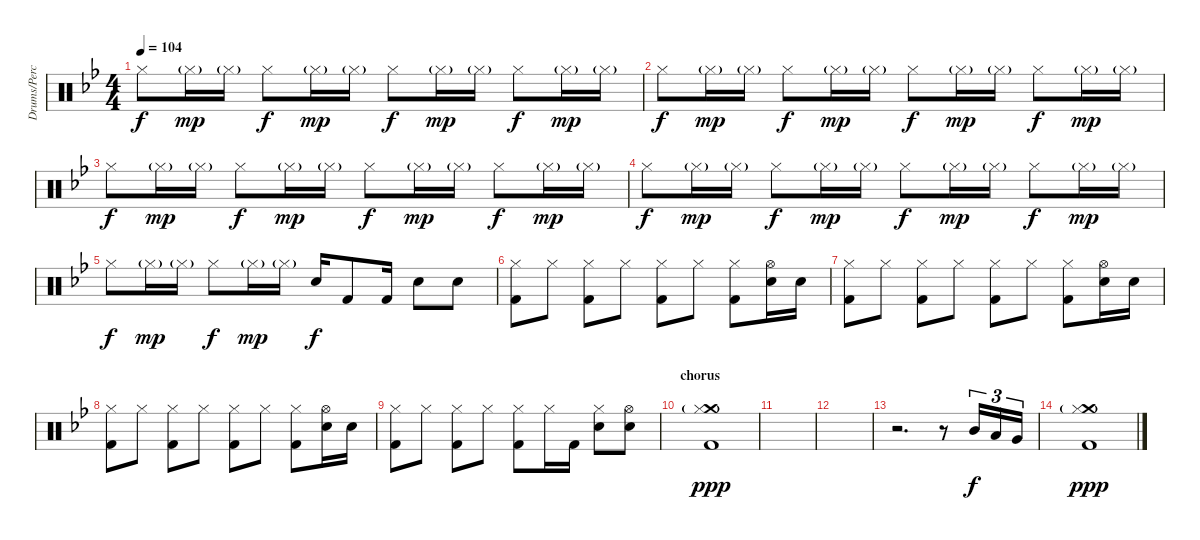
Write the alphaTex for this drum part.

\track ("Drums/Percussion (Bengerg)" "Drums/Perc") {instrument percussion}
\staff {score}
\articulation defaults
\ts (4 4)
\tempo 104
\clef neutral
\ks bb "Hi-Hat (closed)".8{dy f} "Hi-Hat (closed)"{g}.16{dy mp} "Hi-Hat (closed)"{g}.16 "Hi-Hat (closed)".8{dy f} "Hi-Hat (closed)"{g}.16{dy mp} "Hi-Hat (closed)"{g}.16 "Hi-Hat (closed)".8{dy f} "Hi-Hat (closed)"{g}.16{dy mp} "Hi-Hat (closed)"{g}.16 "Hi-Hat (closed)".8{dy f} "Hi-Hat (closed)"{g}.16{dy mp} "Hi-Hat (closed)"{g}.16
|
"Hi-Hat (closed)".8{dy f} "Hi-Hat (closed)"{g}.16{dy mp} "Hi-Hat (closed)"{g}.16 "Hi-Hat (closed)".8{dy f} "Hi-Hat (closed)"{g}.16{dy mp} "Hi-Hat (closed)"{g}.16 "Hi-Hat (closed)".8{dy f} "Hi-Hat (closed)"{g}.16{dy mp} "Hi-Hat (closed)"{g}.16 "Hi-Hat (closed)".8{dy f} "Hi-Hat (closed)"{g}.16{dy mp} "Hi-Hat (closed)"{g}.16 |
"Hi-Hat (closed)".8{dy f} "Hi-Hat (closed)"{g}.16{dy mp} "Hi-Hat (closed)"{g}.16 "Hi-Hat (closed)".8{dy f} "Hi-Hat (closed)"{g}.16{dy mp} "Hi-Hat (closed)"{g}.16 "Hi-Hat (closed)".8{dy f} "Hi-Hat (closed)"{g}.16{dy mp} "Hi-Hat (closed)"{g}.16 "Hi-Hat (closed)".8{dy f} "Hi-Hat (closed)"{g}.16{dy mp} "Hi-Hat (closed)"{g}.16 |
"Hi-Hat (closed)".8{dy f} "Hi-Hat (closed)"{g}.16{dy mp} "Hi-Hat (closed)"{g}.16 "Hi-Hat (closed)".8{dy f} "Hi-Hat (closed)"{g}.16{dy mp} "Hi-Hat (closed)"{g}.16 "Hi-Hat (closed)".8{dy f} "Hi-Hat (closed)"{g}.16{dy mp} "Hi-Hat (closed)"{g}.16 "Hi-Hat (closed)".8{dy f} "Hi-Hat (closed)"{g}.16{dy mp} "Hi-Hat (closed)"{g}.16 |
"Hi-Hat (closed)".8{dy f} "Hi-Hat (closed)"{g}.16{dy mp} "Hi-Hat (closed)"{g}.16 "Hi-Hat (closed)".8{dy f} "Hi-Hat (closed)"{g}.16{dy mp} "Hi-Hat (closed)"{g}.16 "Electric Snare (hit)".16{dy f} "Kick (hit) 2".8 "Kick (hit) 2".16 "Electric Snare (hit)".8 "Electric Snare (hit)".8 |
("Hi-Hat (closed)" "Kick (hit) 2").8 "Hi-Hat (closed)".8 ("Hi-Hat (closed)" "Kick (hit) 2").8 "Hi-Hat (closed)".8 ("Hi-Hat (closed)" "Kick (hit) 2").8 "Hi-Hat (closed)".8 ("Hi-Hat (closed)" "Kick (hit) 2").8 ("Hi-Hat (open)" "Electric Snare (hit)").16 "Electric Snare (hit)".16 |
("Hi-Hat (closed)" "Kick (hit) 2").8 "Hi-Hat (closed)".8 ("Hi-Hat (closed)" "Kick (hit) 2").8 "Hi-Hat (closed)".8 ("Hi-Hat (closed)" "Kick (hit) 2").8 "Hi-Hat (closed)".8 ("Hi-Hat (closed)" "Kick (hit) 2").8 ("Hi-Hat (open)" "Electric Snare (hit)").16 "Electric Snare (hit)".16 |
("Hi-Hat (closed)" "Kick (hit) 2").8 "Hi-Hat (closed)".8 ("Hi-Hat (closed)" "Kick (hit) 2").8 "Hi-Hat (closed)".8 ("Hi-Hat (closed)" "Kick (hit) 2").8 "Hi-Hat (closed)".8 ("Hi-Hat (closed)" "Kick (hit) 2").8 ("Hi-Hat (open)" "Electric Snare (hit)").16 "Electric Snare (hit)".16 |
("Hi-Hat (closed)" "Kick (hit) 2").8 "Hi-Hat (closed)".8 ("Hi-Hat (closed)" "Kick (hit) 2").8 "Hi-Hat (closed)".8 ("Hi-Hat (closed)" "Kick (hit) 2").8 "Hi-Hat (closed)".16 "Kick (hit) 2".16 ("Hi-Hat (closed)" "Electric Snare (hit)").8 ("Hi-Hat (open)" "Electric Snare (hit)").8 |
\section ("" "chorus")
("Crash medium (hit)" "Hi-Hat (closed)"{g} "Kick (hit) 2").1{dy ppp} |
|
|
r.2{d} r.8 "Mid Tom (hit)".16{tu (3 2) dy f} "Low Tom (hit)".16{tu (3 2)} "Very Low Tom (hit)".16{tu (3 2)} |
("Crash medium (hit)" "Hi-Hat (closed)"{g} "Kick (hit) 2").1{dy ppp}
